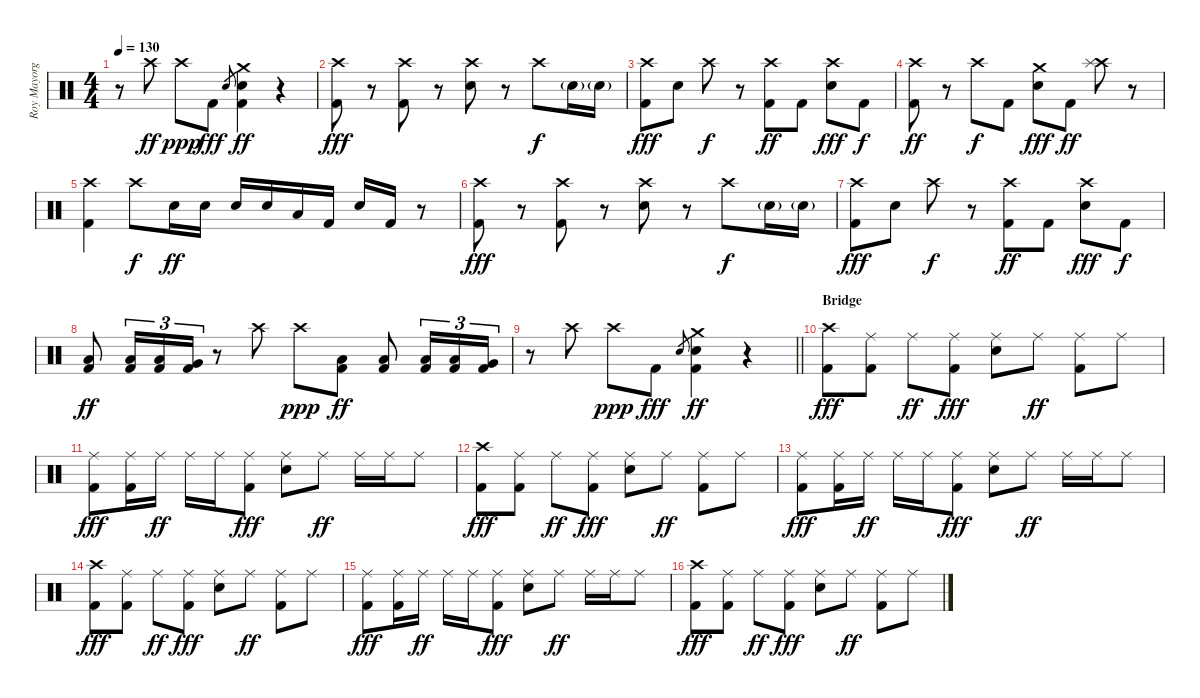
\track ("Roy Mayorga (Drums)" "Roy Mayorg") {instrument percussion}
\staff {score}
\articulation defaults
\ts (4 4)
\tempo 130
\clef neutral
\ks c
r.8{dy ff} "Crash high (hit)".8 "Crash high (hit)".8{dy ppp} "Kick (hit) 2".8{dy fff} "Electric Snare (hit)".8{gr} ("Crash medium (hit)" "Electric Snare (hit)" "Kick (hit) 2").4{dy ff} r.4 |
("Crash high (hit)" "Kick (hit) 2").8{dy fff} r.8 ("Crash high (hit)" "Kick (hit) 2").8 r.8 ("Crash high (hit)" "Electric Snare (hit)").8 r.8 "Crash high (hit)".8{dy f} "Electric Snare (hit)"{g}.16 "Electric Snare (hit)"{g}.16 |
("Crash high (hit)" "Kick (hit) 2").8{dy fff} "Electric Snare (hit)".8 "Crash high (hit)".8{dy f} r.8 ("Crash high (hit)" "Kick (hit) 2").8{dy ff} "Kick (hit) 2".8 ("Crash high (hit)" "Electric Snare (hit)").8{dy fff} "Kick (hit) 2".8{dy f} |
("Crash high (hit)" "Kick (hit) 2").8{dy ff} r.8 "Crash high (hit)".8{dy f} "Kick (hit) 2".8 ("Crash medium (hit)" "Electric Snare (hit)").8{dy fff} "Kick (hit) 2".8{dy ff} ("Crash high (hit)" "Splash (hit)").8 r.8 |
("Crash high (hit)" "Kick (hit) 2").4 "Crash high (hit)".8{dy f} "Electric Snare (hit)".16{dy ff} "Electric Snare (hit)".16 "Electric Snare (hit)".16 "Electric Snare (hit)".16 "Low Tom (hit)".16 "Kick (hit) 2".16 "Electric Snare (hit)".16 "Kick (hit) 2".16 r.8 |
("Crash high (hit)" "Kick (hit) 2").8{dy fff} r.8 ("Crash high (hit)" "Kick (hit) 2").8 r.8 ("Crash high (hit)" "Electric Snare (hit)").8 r.8 "Crash high (hit)".8{dy f} "Electric Snare (hit)"{g}.16 "Electric Snare (hit)"{g}.16 |
("Crash high (hit)" "Kick (hit) 2").8{dy fff} "Electric Snare (hit)".8 "Crash high (hit)".8{dy f} r.8 ("Crash high (hit)" "Kick (hit) 2").8{dy ff} "Kick (hit) 2".8 ("Crash high (hit)" "Electric Snare (hit)").8{dy fff} "Kick (hit) 2".8{dy f} |
("Low Tom (hit)" "Kick (hit) 2").8{dy ff} ("Low Tom (hit)" "Kick (hit) 2").16{tu (3 2)} ("Low Tom (hit)" "Kick (hit) 2").16{tu (3 2)} ("Very Low Tom (hit)" "Kick (hit) 2").16{tu (3 2)} r.8 "Crash high (hit)".8 "Crash high (hit)".8{dy ppp} ("Low Tom (hit)" "Kick (hit) 2").8{dy ff} ("Low Tom (hit)" "Kick (hit) 2").8 ("Low Tom (hit)" "Kick (hit) 2").16{tu (3 2)} ("Low Tom (hit)" "Kick (hit) 2").16{tu (3 2)} ("Very Low Tom (hit)" "Kick (hit) 2").16{tu (3 2)} |
\barLineRight lightlight
r.8 "Crash high (hit)".8 "Crash high (hit)".8{dy ppp} "Kick (hit) 2".8{dy fff} "Electric Snare (hit)".8{gr} ("Crash medium (hit)" "Electric Snare (hit)" "Kick (hit) 2").4{dy ff} r.4 |
\section ("" "Bridge")
("Crash high (hit)" "Kick (hit) 2").8{dy fff} ("Ride (middle)" "Kick (hit) 2").8 "Ride (middle)".8{dy ff} ("Ride (middle)" "Kick (hit) 2").8{dy fff} ("Ride (middle)" "Electric Snare (hit)").8 "Ride (middle)".8{dy ff} ("Ride (middle)" "Kick (hit) 2").8 "Ride (middle)".8 |
("Ride (middle)" "Kick (hit) 2").8{dy fff} ("Ride (middle)" "Kick (hit) 2").16 "Ride (middle)".16{dy ff} "Ride (middle)".16 "Ride (middle)".16 ("Ride (middle)" "Kick (hit) 2").8{dy fff} ("Ride (middle)" "Electric Snare (hit)").8 "Ride (middle)".8{dy ff} "Ride (middle)".16 "Ride (middle)".16 "Ride (middle)".8 |
("Crash high (hit)" "Kick (hit) 2").8{dy fff} ("Ride (middle)" "Kick (hit) 2").8 "Ride (middle)".8{dy ff} ("Ride (middle)" "Kick (hit) 2").8{dy fff} ("Ride (middle)" "Electric Snare (hit)").8 "Ride (middle)".8{dy ff} ("Ride (middle)" "Kick (hit) 2").8 "Ride (middle)".8 |
("Ride (middle)" "Kick (hit) 2").8{dy fff} ("Ride (middle)" "Kick (hit) 2").16 "Ride (middle)".16{dy ff} "Ride (middle)".16 "Ride (middle)".16 ("Ride (middle)" "Kick (hit) 2").8{dy fff} ("Ride (middle)" "Electric Snare (hit)").8 "Ride (middle)".8{dy ff} "Ride (middle)".16 "Ride (middle)".16 "Ride (middle)".8 |
("Crash high (hit)" "Kick (hit) 2").8{dy fff} ("Ride (middle)" "Kick (hit) 2").8 "Ride (middle)".8{dy ff} ("Ride (middle)" "Kick (hit) 2").8{dy fff} ("Ride (middle)" "Electric Snare (hit)").8 "Ride (middle)".8{dy ff} ("Ride (middle)" "Kick (hit) 2").8 "Ride (middle)".8 |
("Ride (middle)" "Kick (hit) 2").8{dy fff} ("Ride (middle)" "Kick (hit) 2").16 "Ride (middle)".16{dy ff} "Ride (middle)".16 "Ride (middle)".16 ("Ride (middle)" "Kick (hit) 2").8{dy fff} ("Ride (middle)" "Electric Snare (hit)").8 "Ride (middle)".8{dy ff} "Ride (middle)".16 "Ride (middle)".16 "Ride (middle)".8 |
("Crash high (hit)" "Kick (hit) 2").8{dy fff} ("Ride (middle)" "Kick (hit) 2").8 "Ride (middle)".8{dy ff} ("Ride (middle)" "Kick (hit) 2").8{dy fff} ("Ride (middle)" "Electric Snare (hit)").8 "Ride (middle)".8{dy ff} ("Ride (middle)" "Kick (hit) 2").8 "Ride (middle)".8
